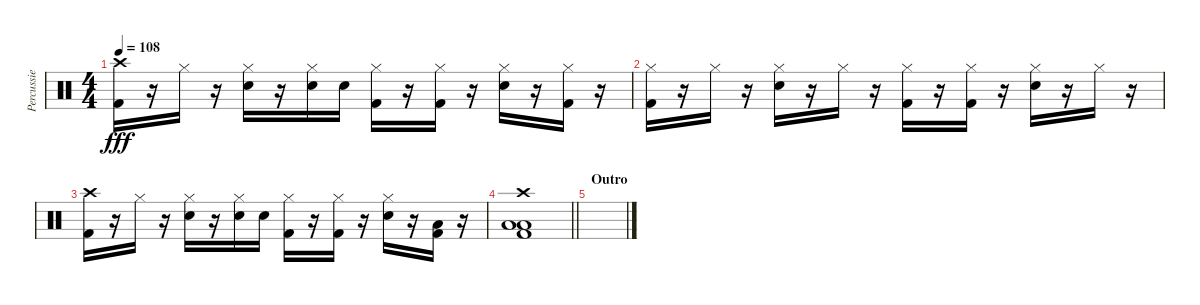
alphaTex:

\track ("Percussie" "Percussie") {instrument percussion}
\staff {score}
\articulation defaults
\ts (4 4)
\tempo 108
\clef neutral
\ks c
("Crash high (hit)" "Kick (hit) 2").16{dy fff} r.16 "Hi-Hat (closed)".16 r.16 ("Hi-Hat (closed)" "Snare (hit) 2").16 r.16 ("Hi-Hat (closed)" "Snare (hit) 2").16 "Snare (hit) 2".16 ("Hi-Hat (closed)" "Kick (hit) 2").16 r.16 ("Hi-Hat (closed)" "Kick (hit) 2").16 r.16 ("Hi-Hat (closed)" "Snare (hit) 2").16 r.16 ("Hi-Hat (closed)" "Kick (hit) 2").16 r.16 |
("Hi-Hat (closed)" "Kick (hit) 2").16 r.16 "Hi-Hat (closed)".16 r.16 ("Hi-Hat (closed)" "Snare (hit) 2").16 r.16 "Hi-Hat (closed)".16 r.16 ("Hi-Hat (closed)" "Kick (hit) 2").16 r.16 ("Hi-Hat (closed)" "Kick (hit) 2").16 r.16 ("Hi-Hat (closed)" "Snare (hit) 2").16 r.16 "Hi-Hat (closed)".16 r.16 |
("Crash high (hit)" "Kick (hit) 2").16 r.16 "Hi-Hat (closed)".16 r.16 ("Hi-Hat (closed)" "Snare (hit) 2").16 r.16 ("Hi-Hat (closed)" "Snare (hit) 2").16 "Snare (hit) 2".16 ("Hi-Hat (closed)" "Kick (hit) 2").16 r.16 ("Hi-Hat (closed)" "Kick (hit) 2").16 r.16 ("Hi-Hat (closed)" "Snare (hit) 2").16 r.16 ("Low Floor Tom (hit)" "Kick (hit) 2").16 r.16 |
\barLineRight lightlight
("Crash high (hit)" "Low Tom (hit)" "Low Floor Tom (hit)" "Kick (hit) 2").1 |
\section ("" "Outro")
